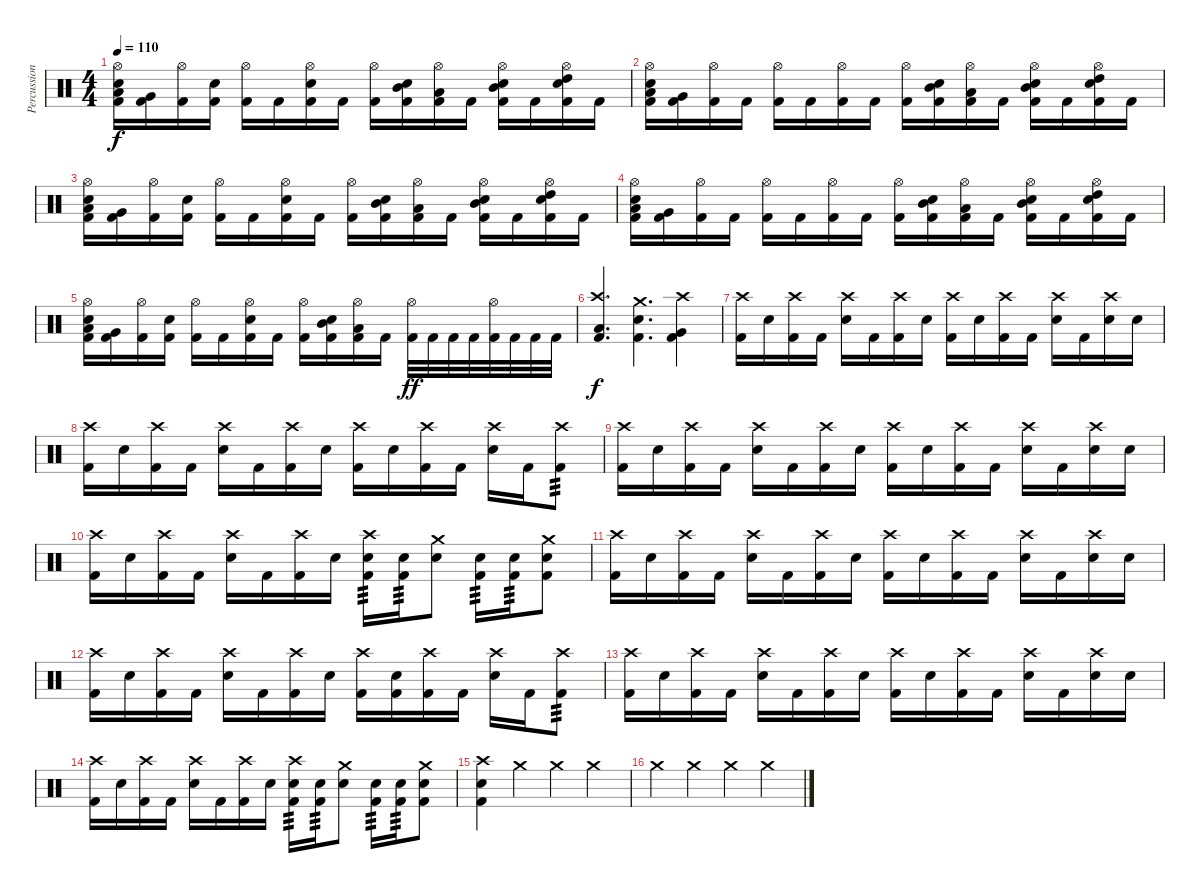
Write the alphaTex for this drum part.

\track ("Percussion" "Percussion") {instrument percussion}
\staff {score}
\articulation defaults
\ts (4 4)
\tempo 110
\clef neutral
\ks c
("Hi-Hat (open)" "Electric Snare (hit)" "Low Tom (hit)" "Kick (hit) 2").16{dy f} ("Very Low Tom (hit)" "Kick (hit) 2").16 ("Hi-Hat (open)" "Kick (hit) 2").16 ("Electric Snare (hit)" "Kick (hit) 2").16 ("Hi-Hat (open)" "Kick (hit) 2").16 "Kick (hit) 2".16 ("Hi-Hat (open)" "Electric Snare (hit)" "Kick (hit) 2").16 "Kick (hit) 2".16 ("Hi-Hat (open)" "Kick (hit) 2").16 ("Electric Snare (hit)" "Mid Tom (hit)" "Kick (hit) 2").16 ("Hi-Hat (open)" "Low Tom (hit)" "Kick (hit) 2").16 "Kick (hit) 2".16 ("Hi-Hat (open)" "Electric Snare (hit)" "Mid Tom (hit)" "Kick (hit) 2").16 "Kick (hit) 2".16 ("Hi-Hat (open)" "Electric Snare (hit)" "High Tom (hit)" "Kick (hit) 2").16 "Kick (hit) 2".16 |
("Hi-Hat (open)" "Electric Snare (hit)" "Low Tom (hit)" "Kick (hit) 2").16 ("Very Low Tom (hit)" "Kick (hit) 2").16 ("Hi-Hat (open)" "Kick (hit) 2").16 "Kick (hit) 2".16 ("Hi-Hat (open)" "Kick (hit) 2").16 "Kick (hit) 2".16 ("Hi-Hat (open)" "Kick (hit) 2").16 "Kick (hit) 2".16 ("Hi-Hat (open)" "Kick (hit) 2").16 ("Electric Snare (hit)" "Mid Tom (hit)" "Kick (hit) 2").16 ("Hi-Hat (open)" "Low Tom (hit)" "Kick (hit) 2").16 "Kick (hit) 2".16 ("Hi-Hat (open)" "Electric Snare (hit)" "Mid Tom (hit)" "Kick (hit) 2").16 "Kick (hit) 2".16 ("Hi-Hat (open)" "Electric Snare (hit)" "High Tom (hit)" "Kick (hit) 2").16 "Kick (hit) 2".16 |
("Hi-Hat (open)" "Electric Snare (hit)" "Low Tom (hit)" "Kick (hit) 2").16 ("Very Low Tom (hit)" "Kick (hit) 2").16 ("Hi-Hat (open)" "Kick (hit) 2").16 ("Electric Snare (hit)" "Kick (hit) 2").16 ("Hi-Hat (open)" "Kick (hit) 2").16 "Kick (hit) 2".16 ("Hi-Hat (open)" "Electric Snare (hit)" "Kick (hit) 2").16 "Kick (hit) 2".16 ("Hi-Hat (open)" "Kick (hit) 2").16 ("Electric Snare (hit)" "Mid Tom (hit)" "Kick (hit) 2").16 ("Hi-Hat (open)" "Low Tom (hit)" "Kick (hit) 2").16 "Kick (hit) 2".16 ("Hi-Hat (open)" "Electric Snare (hit)" "Mid Tom (hit)" "Kick (hit) 2").16 "Kick (hit) 2".16 ("Hi-Hat (open)" "Electric Snare (hit)" "High Tom (hit)" "Kick (hit) 2").16 "Kick (hit) 2".16 |
("Hi-Hat (open)" "Electric Snare (hit)" "Low Tom (hit)" "Kick (hit) 2").16 ("Very Low Tom (hit)" "Kick (hit) 2").16 ("Hi-Hat (open)" "Kick (hit) 2").16 "Kick (hit) 2".16 ("Hi-Hat (open)" "Kick (hit) 2").16 "Kick (hit) 2".16 ("Hi-Hat (open)" "Kick (hit) 2").16 "Kick (hit) 2".16 ("Hi-Hat (open)" "Kick (hit) 2").16 ("Electric Snare (hit)" "Mid Tom (hit)" "Kick (hit) 2").16 ("Hi-Hat (open)" "Low Tom (hit)" "Kick (hit) 2").16 "Kick (hit) 2".16 ("Hi-Hat (open)" "Electric Snare (hit)" "Mid Tom (hit)" "Kick (hit) 2").16 "Kick (hit) 2".16 ("Hi-Hat (open)" "Electric Snare (hit)" "High Tom (hit)" "Kick (hit) 2").16 "Kick (hit) 2".16 |
("Hi-Hat (open)" "Electric Snare (hit)" "Low Tom (hit)" "Kick (hit) 2").16 ("Very Low Tom (hit)" "Kick (hit) 2").16 ("Hi-Hat (open)" "Kick (hit) 2").16 ("Electric Snare (hit)" "Kick (hit) 2").16 ("Hi-Hat (open)" "Kick (hit) 2").16 "Kick (hit) 2".16 ("Hi-Hat (open)" "Electric Snare (hit)" "Kick (hit) 2").16 "Kick (hit) 2".16 ("Hi-Hat (open)" "Kick (hit) 2").16 ("Electric Snare (hit)" "Mid Tom (hit)" "Kick (hit) 2").16 ("Hi-Hat (open)" "Low Tom (hit)" "Kick (hit) 2").16 "Kick (hit) 2".16 ("Hi-Hat (open)" "Kick (hit) 2").32{dy ff} "Kick (hit) 2".32 "Kick (hit) 2".32 "Kick (hit) 2".32 ("Hi-Hat (open)" "Kick (hit) 2").32 "Kick (hit) 2".32 "Kick (hit) 2".32 "Kick (hit) 2".32 |
("Crash high (hit)" "Low Floor Tom (hit)" "Kick (hit) 2").4{d dy f} ("Crash medium (hit)" "Electric Snare (hit)" "Kick (hit) 2").4{d} ("Crash high (hit)" "Very Low Tom (hit)" "Kick (hit) 2").4 |
("Crash high (hit)" "Kick (hit) 2").16 "Electric Snare (hit)".16 ("Crash high (hit)" "Kick (hit) 2").16 "Kick (hit) 2".16 ("Crash high (hit)" "Electric Snare (hit)").16 "Kick (hit) 2".16 ("Crash high (hit)" "Kick (hit) 2").16 "Electric Snare (hit)".16 ("Crash high (hit)" "Kick (hit) 2").16 "Electric Snare (hit)".16 ("Crash high (hit)" "Kick (hit) 2").16 "Kick (hit) 2".16 ("Crash high (hit)" "Electric Snare (hit)").16 "Kick (hit) 2".16 ("Crash high (hit)" "Electric Snare (hit)").16 "Electric Snare (hit)".16 |
("Crash high (hit)" "Kick (hit) 2").16 "Electric Snare (hit)".16 ("Crash high (hit)" "Kick (hit) 2").16 "Kick (hit) 2".16 ("Crash high (hit)" "Electric Snare (hit)").16 "Kick (hit) 2".16 ("Crash high (hit)" "Kick (hit) 2").16 "Electric Snare (hit)".16 ("Crash high (hit)" "Kick (hit) 2").16 "Electric Snare (hit)".16 ("Crash high (hit)" "Kick (hit) 2").16 "Kick (hit) 2".16 ("Crash high (hit)" "Electric Snare (hit)").16 "Kick (hit) 2".16 ("Crash high (hit)" "Kick (hit) 2").8{tp 3} |
("Crash high (hit)" "Kick (hit) 2").16 "Electric Snare (hit)".16 ("Crash high (hit)" "Kick (hit) 2").16 "Kick (hit) 2".16 ("Crash high (hit)" "Electric Snare (hit)").16 "Kick (hit) 2".16 ("Crash high (hit)" "Kick (hit) 2").16 "Electric Snare (hit)".16 ("Crash high (hit)" "Kick (hit) 2").16 "Electric Snare (hit)".16 ("Crash high (hit)" "Kick (hit) 2").16 "Kick (hit) 2".16 ("Crash high (hit)" "Electric Snare (hit)").16 "Kick (hit) 2".16 ("Crash high (hit)" "Electric Snare (hit)").16 "Electric Snare (hit)".16 |
("Crash high (hit)" "Kick (hit) 2").16 "Electric Snare (hit)".16 ("Crash high (hit)" "Kick (hit) 2").16 "Kick (hit) 2".16 ("Crash high (hit)" "Electric Snare (hit)").16 "Kick (hit) 2".16 ("Crash high (hit)" "Kick (hit) 2").16 "Electric Snare (hit)".16 ("Crash high (hit)" "Electric Snare (hit)" "Kick (hit) 2").16{tp 3} ("Electric Snare (hit)" "Kick (hit) 2").16{tp 3} ("Crash medium (hit)" "Electric Snare (hit)").8 ("Electric Snare (hit)" "Kick (hit) 2").16{tp 3} ("Electric Snare (hit)" "Kick (hit) 2").16{tp 3} ("Crash medium (hit)" "Electric Snare (hit)" "Kick (hit) 2").8 |
("Crash high (hit)" "Kick (hit) 2").16 "Electric Snare (hit)".16 ("Crash high (hit)" "Kick (hit) 2").16 "Kick (hit) 2".16 ("Crash high (hit)" "Electric Snare (hit)").16 "Kick (hit) 2".16 ("Crash high (hit)" "Kick (hit) 2").16 "Electric Snare (hit)".16 ("Crash high (hit)" "Kick (hit) 2").16 "Electric Snare (hit)".16 ("Crash high (hit)" "Kick (hit) 2").16 "Kick (hit) 2".16 ("Crash high (hit)" "Electric Snare (hit)").16 "Kick (hit) 2".16 ("Crash high (hit)" "Electric Snare (hit)").16 "Electric Snare (hit)".16 |
("Crash high (hit)" "Kick (hit) 2").16 "Electric Snare (hit)".16 ("Crash high (hit)" "Kick (hit) 2").16 "Kick (hit) 2".16 ("Crash high (hit)" "Electric Snare (hit)").16 "Kick (hit) 2".16 ("Crash high (hit)" "Kick (hit) 2").16 "Electric Snare (hit)".16 ("Crash high (hit)" "Kick (hit) 2").16 ("Electric Snare (hit)" "Kick (hit) 2").16 ("Crash high (hit)" "Kick (hit) 2").16 "Kick (hit) 2".16 ("Crash high (hit)" "Electric Snare (hit)").16 "Kick (hit) 2".16 ("Crash high (hit)" "Kick (hit) 2").8{tp 3} |
("Crash high (hit)" "Kick (hit) 2").16 "Electric Snare (hit)".16 ("Crash high (hit)" "Kick (hit) 2").16 "Kick (hit) 2".16 ("Crash high (hit)" "Electric Snare (hit)").16 "Kick (hit) 2".16 ("Crash high (hit)" "Kick (hit) 2").16 "Electric Snare (hit)".16 ("Crash high (hit)" "Kick (hit) 2").16 "Electric Snare (hit)".16 ("Crash high (hit)" "Kick (hit) 2").16 "Kick (hit) 2".16 ("Crash high (hit)" "Electric Snare (hit)").16 "Kick (hit) 2".16 ("Crash high (hit)" "Electric Snare (hit)").16 "Electric Snare (hit)".16 |
("Crash high (hit)" "Kick (hit) 2").16 "Electric Snare (hit)".16 ("Crash high (hit)" "Kick (hit) 2").16 "Kick (hit) 2".16 ("Crash high (hit)" "Electric Snare (hit)").16 "Kick (hit) 2".16 ("Crash high (hit)" "Kick (hit) 2").16 "Electric Snare (hit)".16 ("Crash high (hit)" "Electric Snare (hit)" "Kick (hit) 2").16{tp 3} ("Electric Snare (hit)" "Kick (hit) 2").16{tp 3} ("Crash medium (hit)" "Electric Snare (hit)").8 ("Electric Snare (hit)" "Kick (hit) 2").16{tp 3} ("Electric Snare (hit)" "Kick (hit) 2").16{tp 3} ("Crash medium (hit)" "Electric Snare (hit)" "Kick (hit) 2").8 |
("Crash high (hit)" "Electric Snare (hit)" "Kick (hit) 2").4 "Crash medium (hit)".4 "Crash medium (hit)".4 "Crash medium (hit)".4 |
"Crash medium (hit)".4 "Crash medium (hit)".4 "Crash medium (hit)".4 "Crash medium (hit)".4
